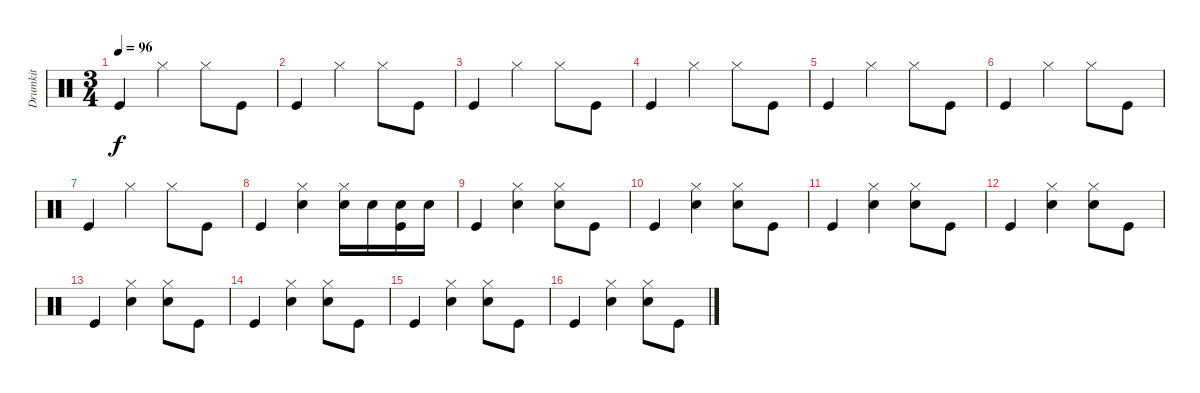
\track ("Drumkit" "Drumkit") {instrument percussion}
\staff {score}
\articulation defaults
\ts (3 4)
\tempo 96
\clef neutral
\ks c "Kick (hit)".4{dy f} "Hi-Hat (closed)".4 "Hi-Hat (closed)".8 "Kick (hit)".8
|
"Kick (hit)".4 "Hi-Hat (closed)".4 "Hi-Hat (closed)".8 "Kick (hit)".8 |
"Kick (hit)".4 "Hi-Hat (closed)".4 "Hi-Hat (closed)".8 "Kick (hit)".8 |
"Kick (hit)".4 "Hi-Hat (closed)".4 "Hi-Hat (closed)".8 "Kick (hit)".8 |
"Kick (hit)".4 "Hi-Hat (closed)".4 "Hi-Hat (closed)".8 "Kick (hit)".8 |
"Kick (hit)".4 "Hi-Hat (closed)".4 "Hi-Hat (closed)".8 "Kick (hit)".8 |
"Kick (hit)".4 "Hi-Hat (closed)".4 "Hi-Hat (closed)".8 "Kick (hit)".8 |
"Kick (hit)".4 ("Hi-Hat (closed)" "Snare (hit) 2").4 ("Hi-Hat (closed)" "Snare (hit) 2").16 "Snare (hit) 2".16 ("Snare (hit) 2" "Kick (hit)").16 "Snare (hit) 2".16 |
"Kick (hit)".4 ("Hi-Hat (closed)" "Snare (hit) 2").4 ("Hi-Hat (closed)" "Snare (hit) 2").8 "Kick (hit)".8 |
"Kick (hit)".4 ("Hi-Hat (closed)" "Snare (hit) 2").4 ("Hi-Hat (closed)" "Snare (hit) 2").8 "Kick (hit)".8 |
"Kick (hit)".4 ("Hi-Hat (closed)" "Snare (hit) 2").4 ("Hi-Hat (closed)" "Snare (hit) 2").8 "Kick (hit)".8 |
"Kick (hit)".4 ("Hi-Hat (closed)" "Snare (hit) 2").4 ("Hi-Hat (closed)" "Snare (hit) 2").8 "Kick (hit)".8 |
"Kick (hit)".4 ("Hi-Hat (closed)" "Snare (hit) 2").4 ("Hi-Hat (closed)" "Snare (hit) 2").8 "Kick (hit)".8 |
"Kick (hit)".4 ("Hi-Hat (closed)" "Snare (hit) 2").4 ("Hi-Hat (closed)" "Snare (hit) 2").8 "Kick (hit)".8 |
"Kick (hit)".4 ("Hi-Hat (closed)" "Snare (hit) 2").4 ("Hi-Hat (closed)" "Snare (hit) 2").8 "Kick (hit)".8 |
"Kick (hit)".4 ("Hi-Hat (closed)" "Snare (hit) 2").4 ("Hi-Hat (closed)" "Snare (hit) 2").8 "Kick (hit)".8
